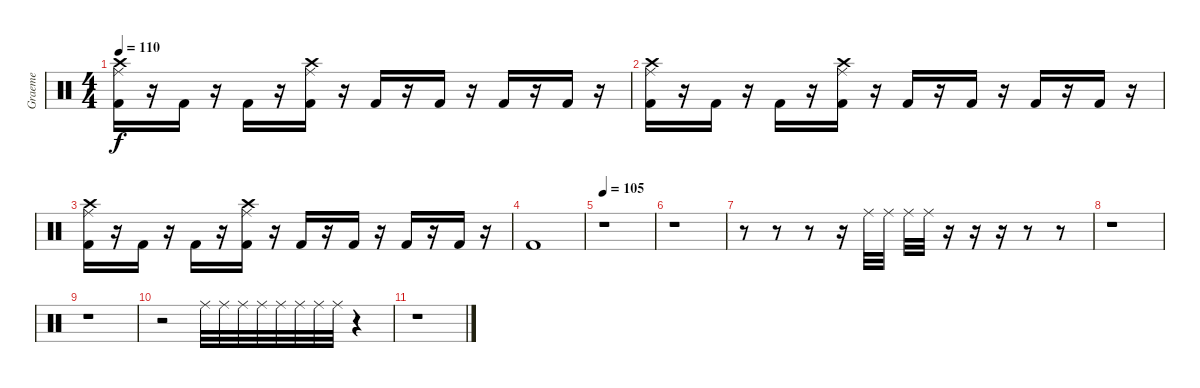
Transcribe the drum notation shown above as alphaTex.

\track ("Graeme" "Graeme") {instrument percussion}
\staff {score}
\articulation defaults
\ts (4 4)
\tempo 110
\clef neutral
\ks c
("Ride (middle)" "Crash high (hit)" "Kick (hit) 2").16{dy f} r.16 "Kick (hit) 2".16 r.16 "Kick (hit) 2".16 r.16 ("Ride (middle)" "Crash high (hit)" "Kick (hit) 2").16 r.16 "Kick (hit) 2".16 r.16 "Kick (hit) 2".16 r.16 "Kick (hit) 2".16 r.16 "Kick (hit) 2".16 r.16 |
("Ride (middle)" "Crash high (hit)" "Kick (hit) 2").16 r.16 "Kick (hit) 2".16 r.16 "Kick (hit) 2".16 r.16 ("Ride (middle)" "Crash high (hit)" "Kick (hit) 2").16 r.16 "Kick (hit) 2".16 r.16 "Kick (hit) 2".16 r.16 "Kick (hit) 2".16 r.16 "Kick (hit) 2".16 r.16 |
("Ride (middle)" "Crash high (hit)" "Kick (hit) 2").16 r.16 "Kick (hit) 2".16 r.16 "Kick (hit) 2".16 r.16 ("Ride (middle)" "Crash high (hit)" "Kick (hit) 2").16 r.16 "Kick (hit) 2".16 r.16 "Kick (hit) 2".16 r.16 "Kick (hit) 2".16 r.16 "Kick (hit) 2".16 r.16 |
"Kick (hit) 2".1 |
\tempo 105
r.1 |
r.1 |
r.8 r.8 r.8 r.16 "Ride (middle)".32 "Ride (middle)".32 "Ride (middle)".32 "Ride (middle)".32 r.16 r.16 r.16 r.8 r.8 |
r.1 |
r.1 |
r.2 "Ride (middle)".32 "Ride (middle)".32 "Ride (middle)".32 "Ride (middle)".32 "Ride (middle)".32 "Ride (middle)".32 "Ride (middle)".32 "Ride (middle)".32 r.4 |
r.1
